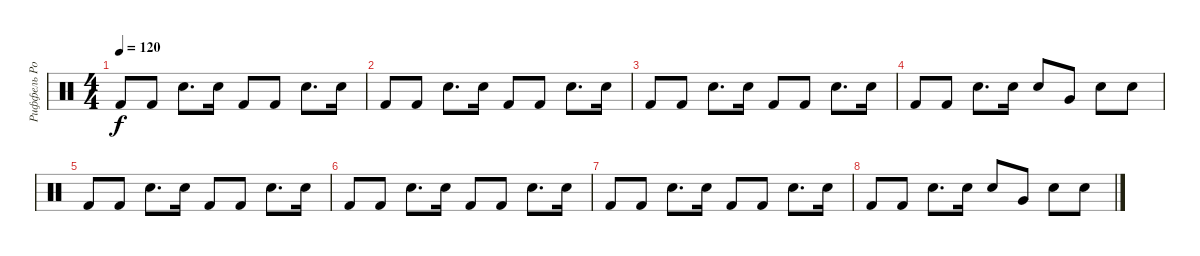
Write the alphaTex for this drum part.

\track ("Риффель Роман (главные)" "Риффель Ро") {instrument percussion}
\staff {score}
\articulation defaults
\ts (4 4)
\tempo 120
\clef neutral
\ks c "Kick (hit) 2".8{dy f} "Kick (hit) 2".8 "Electric Snare (hit)".8{d} "Electric Snare (hit)".16 "Kick (hit) 2".8 "Kick (hit) 2".8 "Electric Snare (hit)".8{d} "Electric Snare (hit)".16
|
"Kick (hit) 2".8 "Kick (hit) 2".8 "Electric Snare (hit)".8{d} "Electric Snare (hit)".16 "Kick (hit) 2".8 "Kick (hit) 2".8 "Electric Snare (hit)".8{d} "Electric Snare (hit)".16 |
"Kick (hit) 2".8 "Kick (hit) 2".8 "Electric Snare (hit)".8{d} "Electric Snare (hit)".16 "Kick (hit) 2".8 "Kick (hit) 2".8 "Electric Snare (hit)".8{d} "Electric Snare (hit)".16 |
"Kick (hit) 2".8 "Kick (hit) 2".8 "Electric Snare (hit)".8{d} "Electric Snare (hit)".16 "Electric Snare (hit)".8 "Very Low Tom (hit)".8 "Electric Snare (hit)".8 "Electric Snare (hit)".8 |
"Kick (hit) 2".8 "Kick (hit) 2".8 "Electric Snare (hit)".8{d} "Electric Snare (hit)".16 "Kick (hit) 2".8 "Kick (hit) 2".8 "Electric Snare (hit)".8{d} "Electric Snare (hit)".16 |
"Kick (hit) 2".8 "Kick (hit) 2".8 "Electric Snare (hit)".8{d} "Electric Snare (hit)".16 "Kick (hit) 2".8 "Kick (hit) 2".8 "Electric Snare (hit)".8{d} "Electric Snare (hit)".16 |
"Kick (hit) 2".8 "Kick (hit) 2".8 "Electric Snare (hit)".8{d} "Electric Snare (hit)".16 "Kick (hit) 2".8 "Kick (hit) 2".8 "Electric Snare (hit)".8{d} "Electric Snare (hit)".16 |
"Kick (hit) 2".8 "Kick (hit) 2".8 "Electric Snare (hit)".8{d} "Electric Snare (hit)".16 "Electric Snare (hit)".8 "Very Low Tom (hit)".8 "Electric Snare (hit)".8 "Electric Snare (hit)".8
